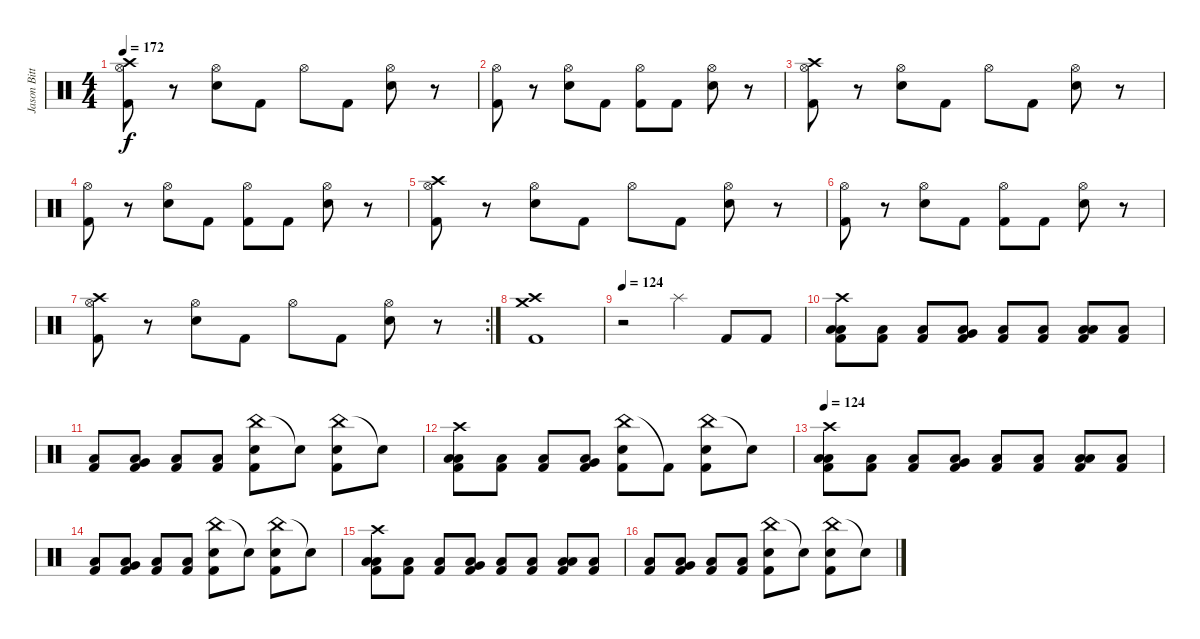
\track ("Jason Bittner" "Jason Bitt") {instrument percussion}
\staff {score}
\articulation defaults
\ts (4 4)
\tempo 172
\clef neutral
\ks c
("Crash high (hit)" "Hi-Hat (open)" "Kick (hit) 2").8{dy f} r.8 ("Hi-Hat (open)" "Electric Snare (hit)").8 "Kick (hit) 2".8 "Hi-Hat (open)".8 "Kick (hit) 2".8 ("Hi-Hat (open)" "Electric Snare (hit)").8 r.8 |
("Hi-Hat (open)" "Kick (hit) 2").8 r.8 ("Hi-Hat (open)" "Electric Snare (hit)").8 "Kick (hit) 2".8 ("Hi-Hat (open)" "Kick (hit) 2").8 "Kick (hit) 2".8 ("Hi-Hat (open)" "Electric Snare (hit)").8 r.8 |
("Crash high (hit)" "Hi-Hat (open)" "Kick (hit) 2").8 r.8 ("Hi-Hat (open)" "Electric Snare (hit)").8 "Kick (hit) 2".8 "Hi-Hat (open)".8 "Kick (hit) 2".8 ("Hi-Hat (open)" "Electric Snare (hit)").8 r.8 |
("Hi-Hat (open)" "Kick (hit) 2").8 r.8 ("Hi-Hat (open)" "Electric Snare (hit)").8 "Kick (hit) 2".8 ("Hi-Hat (open)" "Kick (hit) 2").8 "Kick (hit) 2".8 ("Hi-Hat (open)" "Electric Snare (hit)").8 r.8 |
("Crash high (hit)" "Hi-Hat (open)" "Kick (hit) 2").8 r.8 ("Hi-Hat (open)" "Electric Snare (hit)").8 "Kick (hit) 2".8 "Hi-Hat (open)".8 "Kick (hit) 2".8 ("Hi-Hat (open)" "Electric Snare (hit)").8 r.8 |
("Hi-Hat (open)" "Kick (hit) 2").8 r.8 ("Hi-Hat (open)" "Electric Snare (hit)").8 "Kick (hit) 2".8 ("Hi-Hat (open)" "Kick (hit) 2").8 "Kick (hit) 2".8 ("Hi-Hat (open)" "Electric Snare (hit)").8 r.8 |
\rc 2
("Crash high (hit)" "Hi-Hat (open)" "Kick (hit) 2").8 r.8 ("Hi-Hat (open)" "Electric Snare (hit)").8 "Kick (hit) 2".8 "Hi-Hat (open)".8 "Kick (hit) 2".8 ("Hi-Hat (open)" "Electric Snare (hit)").8 r.8 |
("Crash medium (hit)" "Crash high (hit)" "Kick (hit) 2").1 |
\tempo 124
r.2 "Splash (hit)".4 "Kick (hit) 2".8 "Kick (hit) 2".8 |
("Crash high (hit)" "Low Floor Tom (hit)" "Kick (hit) 2" "Low Tom (hit)").8 ("Low Floor Tom (hit)" "Kick (hit) 2").8 ("Low Floor Tom (hit)" "Kick (hit) 2").8 ("Low Floor Tom (hit)" "Kick (hit) 2" "Very Low Tom (hit)").8 ("Low Floor Tom (hit)" "Kick (hit) 2").8 ("Low Floor Tom (hit)" "Kick (hit) 2").8 ("Low Floor Tom (hit)" "Kick (hit) 2" "Low Tom (hit)").8 ("Low Floor Tom (hit)" "Kick (hit) 2").8 |
("Low Floor Tom (hit)" "Kick (hit) 2").8 ("Low Floor Tom (hit)" "Kick (hit) 2" "Very Low Tom (hit)").8 ("Low Floor Tom (hit)" "Kick (hit) 2").8 ("Low Floor Tom (hit)" "Kick (hit) 2").8 ("China (hit)" "Kick (hit) 2" "Electric Snare (hit)").8 "Snare (hit)"{t}.8 ("China (hit)" "Kick (hit) 2" "Electric Snare (hit)").8 "Snare (hit)"{t}.8 |
("Crash high (hit)" "Low Floor Tom (hit)" "Kick (hit) 2" "Low Tom (hit)").8 ("Low Floor Tom (hit)" "Kick (hit) 2").8 ("Low Floor Tom (hit)" "Kick (hit) 2").8 ("Low Floor Tom (hit)" "Kick (hit) 2" "Very Low Tom (hit)").8 ("China (hit)" "Kick (hit) 2" "Electric Snare (hit)").8 "Kick (hit) 2"{t}.8 ("China (hit)" "Kick (hit) 2" "Electric Snare (hit)").8 "Snare (hit)"{t}.8 |
\tempo 124
("Crash high (hit)" "Low Floor Tom (hit)" "Kick (hit) 2" "Low Tom (hit)").8 ("Low Floor Tom (hit)" "Kick (hit) 2").8 ("Low Floor Tom (hit)" "Kick (hit) 2").8 ("Low Floor Tom (hit)" "Kick (hit) 2" "Very Low Tom (hit)").8 ("Low Floor Tom (hit)" "Kick (hit) 2").8 ("Low Floor Tom (hit)" "Kick (hit) 2").8 ("Low Floor Tom (hit)" "Kick (hit) 2" "Low Tom (hit)").8 ("Low Floor Tom (hit)" "Kick (hit) 2").8 |
("Low Floor Tom (hit)" "Kick (hit) 2").8 ("Low Floor Tom (hit)" "Kick (hit) 2" "Very Low Tom (hit)").8 ("Low Floor Tom (hit)" "Kick (hit) 2").8 ("Low Floor Tom (hit)" "Kick (hit) 2").8 ("China (hit)" "Kick (hit) 2" "Electric Snare (hit)").8 "Snare (hit)"{t}.8 ("China (hit)" "Kick (hit) 2" "Electric Snare (hit)").8 "Snare (hit)"{t}.8 |
("Crash high (hit)" "Low Floor Tom (hit)" "Kick (hit) 2" "Low Tom (hit)").8 ("Low Floor Tom (hit)" "Kick (hit) 2").8 ("Low Floor Tom (hit)" "Kick (hit) 2").8 ("Low Floor Tom (hit)" "Kick (hit) 2" "Very Low Tom (hit)").8 ("Low Floor Tom (hit)" "Kick (hit) 2").8 ("Low Floor Tom (hit)" "Kick (hit) 2").8 ("Low Floor Tom (hit)" "Kick (hit) 2" "Low Tom (hit)").8 ("Low Floor Tom (hit)" "Kick (hit) 2").8 |
("Low Floor Tom (hit)" "Kick (hit) 2").8 ("Low Floor Tom (hit)" "Kick (hit) 2" "Very Low Tom (hit)").8 ("Low Floor Tom (hit)" "Kick (hit) 2").8 ("Low Floor Tom (hit)" "Kick (hit) 2").8 ("China (hit)" "Kick (hit) 2" "Electric Snare (hit)").8 "Snare (hit)"{t}.8 ("China (hit)" "Kick (hit) 2" "Electric Snare (hit)").8 "Snare (hit)"{t}.8
